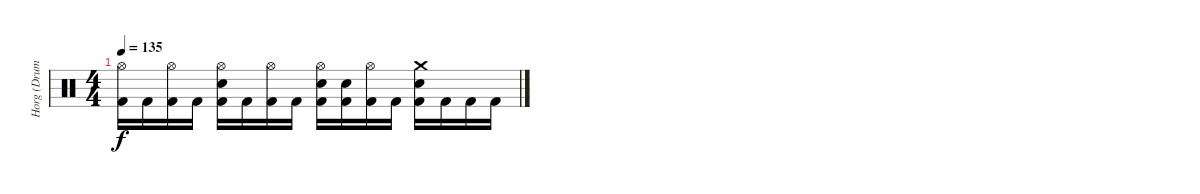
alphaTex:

\track ("Horg (Drums)" "Horg (Drum") {instrument percussion}
\staff {score}
\articulation defaults
\ts (4 4)
\tempo 135
\clef neutral
\ks c
("Hi-Hat (open)" "Kick (hit) 2").16{dy f} "Kick (hit) 2".16 ("Hi-Hat (open)" "Kick (hit) 2").16 "Kick (hit) 2".16 ("Hi-Hat (open)" "Electric Snare (hit)" "Kick (hit) 2").16 "Kick (hit) 2".16 ("Hi-Hat (open)" "Kick (hit) 2").16 "Kick (hit) 2".16 ("Hi-Hat (open)" "Electric Snare (hit)" "Kick (hit) 2").16 ("Electric Snare (hit)" "Kick (hit) 2").16 ("Hi-Hat (open)" "Kick (hit) 2").16 "Kick (hit) 2".16 ("Crash medium (hit)" "Electric Snare (hit)" "Kick (hit) 2").16 "Kick (hit) 2".16 "Kick (hit) 2".16 "Kick (hit) 2".16
